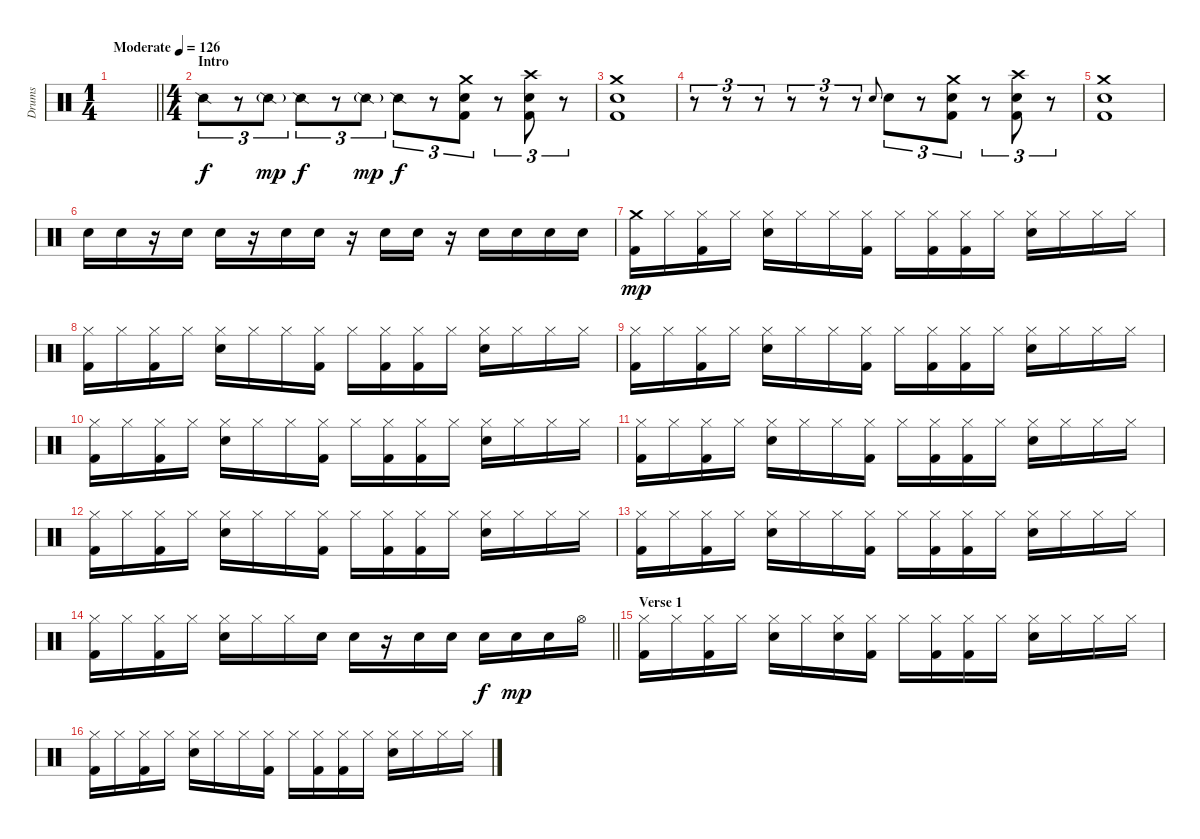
\track ("Drums" "Drums") {instrument percussion}
\staff {score}
\articulation defaults
\ts (1 4)
\tempo (126 "Moderate")
\clef neutral
\barLineRight lightlight
\ks c
|
\ts (4 4)
\section ("" "Intro")
"Snare (side stick) 2".8{tu (3 2)} r.8{tu (3 2)} "Snare (side stick) 2"{g}.8{tu (3 2) dy mp} "Snare (side stick) 2".8{tu (3 2) dy f} r.8{tu (3 2)} "Snare (side stick) 2"{g}.8{tu (3 2) dy mp} "Snare (side stick) 2".8{tu (3 2) dy f} r.8{tu (3 2)} ("Crash medium (hit)" "Snare (hit) 2" "Kick (hit) 2").8{tu (3 2)} r.8{tu (3 2)} ("Crash high (hit)" "Snare (hit) 2" "Kick (hit) 2").8{tu (3 2)} r.8{tu (3 2)} |
("Crash medium (hit)" "Snare (hit) 2" "Kick (hit) 2").1 |
r.8{tu (3 2)} r.8{tu (3 2)} r.8{tu (3 2)} r.8{tu (3 2)} r.8{tu (3 2)} r.8{tu (3 2)} "Snare (hit) 2".8{gr onbeat} "Snare (hit) 2".8{tu (3 2)} r.8{tu (3 2)} ("Crash medium (hit)" "Snare (hit) 2" "Kick (hit) 2").8{tu (3 2)} r.8{tu (3 2)} ("Crash high (hit)" "Snare (hit) 2" "Kick (hit) 2").8{tu (3 2)} r.8{tu (3 2)} |
("Crash medium (hit)" "Snare (hit) 2" "Kick (hit) 2").1 |
"Snare (hit) 2".16 "Snare (hit) 2".16 r.16 "Snare (hit) 2".16 "Snare (hit) 2".16 r.16 "Snare (hit) 2".16 "Snare (hit) 2".16 r.16 "Snare (hit) 2".16 "Snare (hit) 2".16 r.16 "Snare (hit) 2".16 "Snare (hit) 2".16 "Snare (hit) 2".16 "Snare (hit) 2".16 |
("Crash medium (hit)" "Kick (hit) 2").16{dy mp} "Hi-Hat (closed)".16 ("Hi-Hat (closed)" "Kick (hit) 2").16 "Hi-Hat (closed)".16 ("Hi-Hat (closed)" "Snare (hit) 2").16 "Hi-Hat (closed)".16 "Hi-Hat (closed)".16 ("Hi-Hat (closed)" "Kick (hit) 2").16 "Hi-Hat (closed)".16 ("Hi-Hat (closed)" "Kick (hit) 2").16 ("Hi-Hat (closed)" "Kick (hit) 2").16 "Hi-Hat (closed)".16 ("Hi-Hat (closed)" "Snare (hit) 2").16 "Hi-Hat (closed)".16 "Hi-Hat (closed)".16 "Hi-Hat (closed)".16 |
("Hi-Hat (closed)" "Kick (hit) 2").16 "Hi-Hat (closed)".16 ("Hi-Hat (closed)" "Kick (hit) 2").16 "Hi-Hat (closed)".16 ("Hi-Hat (closed)" "Snare (hit) 2").16 "Hi-Hat (closed)".16 "Hi-Hat (closed)".16 ("Hi-Hat (closed)" "Kick (hit) 2").16 "Hi-Hat (closed)".16 ("Hi-Hat (closed)" "Kick (hit) 2").16 ("Hi-Hat (closed)" "Kick (hit) 2").16 "Hi-Hat (closed)".16 ("Hi-Hat (closed)" "Snare (hit) 2").16 "Hi-Hat (closed)".16 "Hi-Hat (closed)".16 "Hi-Hat (closed)".16 |
("Hi-Hat (closed)" "Kick (hit) 2").16 "Hi-Hat (closed)".16 ("Hi-Hat (closed)" "Kick (hit) 2").16 "Hi-Hat (closed)".16 ("Hi-Hat (closed)" "Snare (hit) 2").16 "Hi-Hat (closed)".16 "Hi-Hat (closed)".16 ("Hi-Hat (closed)" "Kick (hit) 2").16 "Hi-Hat (closed)".16 ("Hi-Hat (closed)" "Kick (hit) 2").16 ("Hi-Hat (closed)" "Kick (hit) 2").16 "Hi-Hat (closed)".16 ("Hi-Hat (closed)" "Snare (hit) 2").16 "Hi-Hat (closed)".16 "Hi-Hat (closed)".16 "Hi-Hat (closed)".16 |
("Hi-Hat (closed)" "Kick (hit) 2").16 "Hi-Hat (closed)".16 ("Hi-Hat (closed)" "Kick (hit) 2").16 "Hi-Hat (closed)".16 ("Hi-Hat (closed)" "Snare (hit) 2").16 "Hi-Hat (closed)".16 "Hi-Hat (closed)".16 ("Hi-Hat (closed)" "Kick (hit) 2").16 "Hi-Hat (closed)".16 ("Hi-Hat (closed)" "Kick (hit) 2").16 ("Hi-Hat (closed)" "Kick (hit) 2").16 "Hi-Hat (closed)".16 ("Hi-Hat (closed)" "Snare (hit) 2").16 "Hi-Hat (closed)".16 "Hi-Hat (closed)".16 "Hi-Hat (closed)".16 |
("Hi-Hat (closed)" "Kick (hit) 2").16 "Hi-Hat (closed)".16 ("Hi-Hat (closed)" "Kick (hit) 2").16 "Hi-Hat (closed)".16 ("Hi-Hat (closed)" "Snare (hit) 2").16 "Hi-Hat (closed)".16 "Hi-Hat (closed)".16 ("Hi-Hat (closed)" "Kick (hit) 2").16 "Hi-Hat (closed)".16 ("Hi-Hat (closed)" "Kick (hit) 2").16 ("Hi-Hat (closed)" "Kick (hit) 2").16 "Hi-Hat (closed)".16 ("Hi-Hat (closed)" "Snare (hit) 2").16 "Hi-Hat (closed)".16 "Hi-Hat (closed)".16 "Hi-Hat (closed)".16 |
("Hi-Hat (closed)" "Kick (hit) 2").16 "Hi-Hat (closed)".16 ("Hi-Hat (closed)" "Kick (hit) 2").16 "Hi-Hat (closed)".16 ("Hi-Hat (closed)" "Snare (hit) 2").16 "Hi-Hat (closed)".16 "Hi-Hat (closed)".16 ("Hi-Hat (closed)" "Kick (hit) 2").16 "Hi-Hat (closed)".16 ("Hi-Hat (closed)" "Kick (hit) 2").16 ("Hi-Hat (closed)" "Kick (hit) 2").16 "Hi-Hat (closed)".16 ("Hi-Hat (closed)" "Snare (hit) 2").16 "Hi-Hat (closed)".16 "Hi-Hat (closed)".16 "Hi-Hat (closed)".16 |
("Hi-Hat (closed)" "Kick (hit) 2").16 "Hi-Hat (closed)".16 ("Hi-Hat (closed)" "Kick (hit) 2").16 "Hi-Hat (closed)".16 ("Hi-Hat (closed)" "Snare (hit) 2").16 "Hi-Hat (closed)".16 "Hi-Hat (closed)".16 ("Hi-Hat (closed)" "Kick (hit) 2").16 "Hi-Hat (closed)".16 ("Hi-Hat (closed)" "Kick (hit) 2").16 ("Hi-Hat (closed)" "Kick (hit) 2").16 "Hi-Hat (closed)".16 ("Hi-Hat (closed)" "Snare (hit) 2").16 "Hi-Hat (closed)".16 "Hi-Hat (closed)".16 "Hi-Hat (closed)".16 |
\barLineRight lightlight
("Hi-Hat (closed)" "Kick (hit) 2").16 "Hi-Hat (closed)".16 ("Hi-Hat (closed)" "Kick (hit) 2").16 "Hi-Hat (closed)".16 ("Hi-Hat (closed)" "Snare (hit) 2").16 "Hi-Hat (closed)".16 "Hi-Hat (closed)".16 "Snare (hit) 2".16 "Snare (hit) 2".16 r.16 "Snare (hit) 2".16 "Snare (hit) 2".16 "Snare (hit) 2".16{dy f} "Snare (hit) 2".16{dy mp} "Snare (hit) 2".16 "Hi-Hat (open)".16 |
\section ("" "Verse 1")
("Hi-Hat (closed)" "Kick (hit) 2").16 "Hi-Hat (closed)".16 ("Hi-Hat (closed)" "Kick (hit) 2").16 "Hi-Hat (closed)".16 ("Hi-Hat (closed)" "Snare (hit) 2").16 "Hi-Hat (closed)".16 ("Hi-Hat (closed)" "Snare (hit) 2").16 ("Hi-Hat (closed)" "Kick (hit) 2").16 "Hi-Hat (closed)".16 ("Hi-Hat (closed)" "Kick (hit) 2").16 ("Hi-Hat (closed)" "Kick (hit) 2").16 "Hi-Hat (closed)".16 ("Hi-Hat (closed)" "Snare (hit) 2").16 "Hi-Hat (closed)".16 "Hi-Hat (closed)".16 "Hi-Hat (closed)".16 |
("Hi-Hat (closed)" "Kick (hit) 2").16 "Hi-Hat (closed)".16 ("Hi-Hat (closed)" "Kick (hit) 2").16 "Hi-Hat (closed)".16 ("Hi-Hat (closed)" "Snare (hit) 2").16 "Hi-Hat (closed)".16 "Hi-Hat (closed)".16 ("Hi-Hat (closed)" "Kick (hit) 2").16 "Hi-Hat (closed)".16 ("Hi-Hat (closed)" "Kick (hit) 2").16 ("Hi-Hat (closed)" "Kick (hit) 2").16 "Hi-Hat (closed)".16 ("Hi-Hat (closed)" "Snare (hit) 2").16 "Hi-Hat (closed)".16 "Hi-Hat (closed)".16 "Hi-Hat (closed)".16
